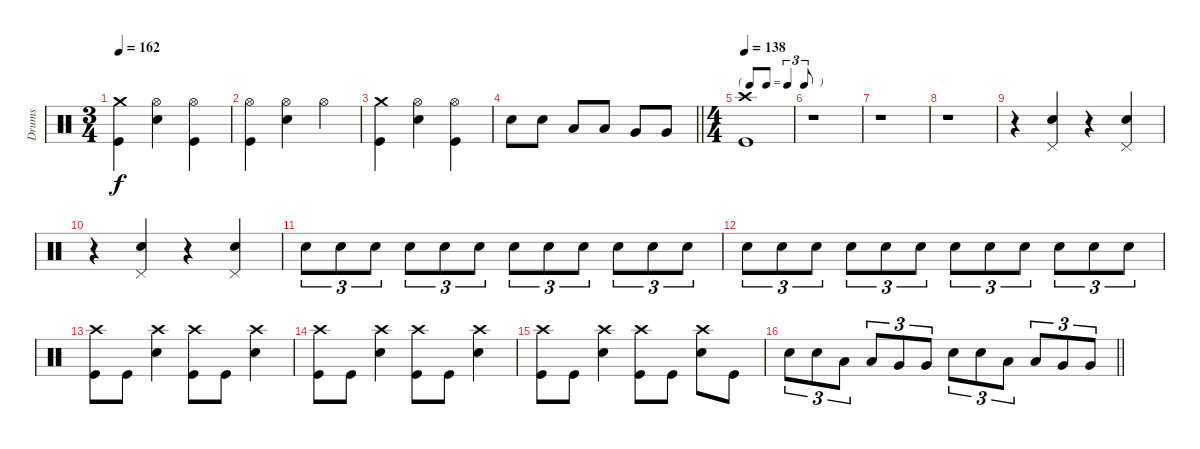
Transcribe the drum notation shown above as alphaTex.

\track ("Drums" "Drums") {instrument percussion}
\staff {score}
\articulation defaults
\ts (3 4)
\tempo 162
\clef neutral
\ks c
("Crash medium (hit)" "Kick (hit)").4{dy f} ("Hi-Hat (open)" "Snare (hit) 2").4 ("Hi-Hat (open)" "Kick (hit)").4 |
("Hi-Hat (open)" "Kick (hit)").4 ("Hi-Hat (open)" "Snare (hit) 2").4 "Hi-Hat (open)".4 |
("Crash medium (hit)" "Kick (hit)").4 ("Hi-Hat (open)" "Snare (hit) 2").4 ("Hi-Hat (open)" "Kick (hit)").4 |
\barLineRight lightlight "Snare (hit) 2".8 "Snare (hit) 2".8 "Low Tom (hit)".8 "Low Tom (hit)".8 "Very Low Tom (hit)".8 "Very Low Tom (hit)".8
|
\ts (4 4)
\tf triplet8th
\tempo 138
("Crash high (hit)" "Kick (hit)").1 |
r.1 |
r.1 |
r.1 |
r.4 ("Pedal Hi-Hat (hit)" "Snare (hit) 2").4 r.4 ("Pedal Hi-Hat (hit)" "Snare (hit) 2").4 |
r.4 ("Pedal Hi-Hat (hit)" "Snare (hit) 2").4 r.4 ("Pedal Hi-Hat (hit)" "Snare (hit) 2").4 |
"Snare (hit) 2".8{tu (3 2)} "Snare (hit) 2".8{tu (3 2)} "Snare (hit) 2".8{tu (3 2)} "Snare (hit) 2".8{tu (3 2)} "Snare (hit) 2".8{tu (3 2)} "Snare (hit) 2".8{tu (3 2)} "Snare (hit) 2".8{tu (3 2)} "Snare (hit) 2".8{tu (3 2)} "Snare (hit) 2".8{tu (3 2)} "Snare (hit) 2".8{tu (3 2)} "Snare (hit) 2".8{tu (3 2)} "Snare (hit) 2".8{tu (3 2)} |
"Snare (hit) 2".8{tu (3 2)} "Snare (hit) 2".8{tu (3 2)} "Snare (hit) 2".8{tu (3 2)} "Snare (hit) 2".8{tu (3 2)} "Snare (hit) 2".8{tu (3 2)} "Snare (hit) 2".8{tu (3 2)} "Snare (hit) 2".8{tu (3 2)} "Snare (hit) 2".8{tu (3 2)} "Snare (hit) 2".8{tu (3 2)} "Snare (hit) 2".8{tu (3 2)} "Snare (hit) 2".8{tu (3 2)} "Snare (hit) 2".8{tu (3 2)} |
("Crash high (hit)" "Kick (hit)").8 "Kick (hit)".8 ("Crash high (hit)" "Snare (hit) 2").4 ("Crash high (hit)" "Kick (hit)").8 "Kick (hit)".8 ("Crash high (hit)" "Snare (hit) 2").4 |
("Crash high (hit)" "Kick (hit)").8 "Kick (hit)".8 ("Crash high (hit)" "Snare (hit) 2").4 ("Crash high (hit)" "Kick (hit)").8 "Kick (hit)".8 ("Crash high (hit)" "Snare (hit) 2").4 |
("Crash high (hit)" "Kick (hit)").8 "Kick (hit)".8 ("Crash high (hit)" "Snare (hit) 2").4 ("Crash high (hit)" "Kick (hit)").8 "Kick (hit)".8 ("Crash high (hit)" "Snare (hit) 2").8 "Kick (hit)".8 |
\barLineRight lightlight "Snare (hit) 2".8{tu (3 2)} "Snare (hit) 2".8{tu (3 2)} "Low Tom (hit)".8{tu (3 2)} "Low Tom (hit)".8{tu (3 2)} "Very Low Tom (hit)".8{tu (3 2)} "Very Low Tom (hit)".8{tu (3 2)} "Snare (hit) 2".8{tu (3 2)} "Snare (hit) 2".8{tu (3 2)} "Low Tom (hit)".8{tu (3 2)} "Low Tom (hit)".8{tu (3 2)} "Very Low Tom (hit)".8{tu (3 2)} "Very Low Tom (hit)".8{tu (3 2)}
